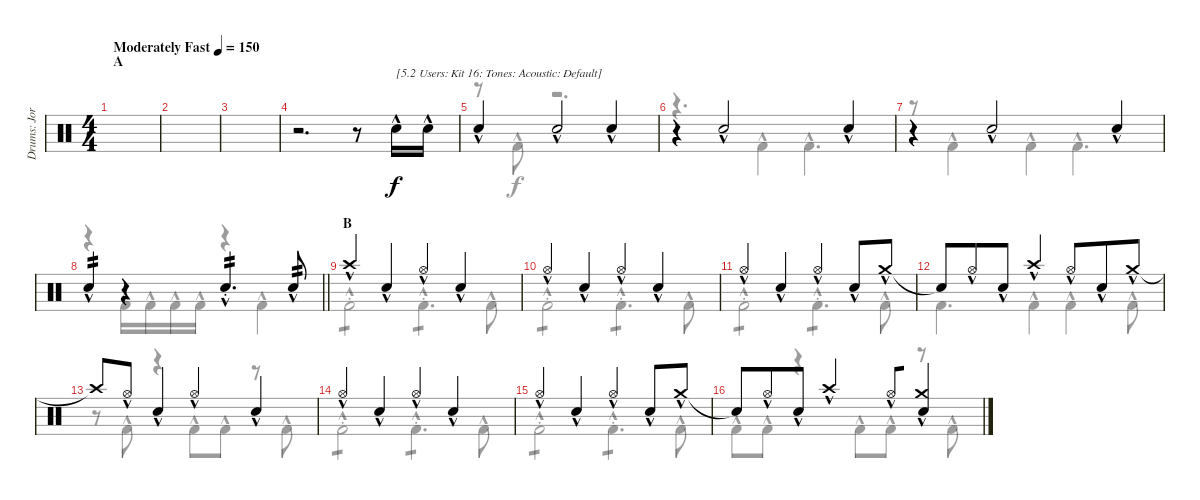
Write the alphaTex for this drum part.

\track ("Drums: Jorg" "Drums: Jor") {instrument percussion}
\staff {score}
\articulation defaults
\voice
\ts (4 4)
\section ("" "A")
\tempo (150 "Moderately Fast")
\clef neutral
\ks c
|
|
|
r.2{d} r.8 "Snare (hit) 2"{hac}.16{txt "[5.2 Users: Kit 16: Tones: Acoustic: Default]"} "Snare (hit) 2"{hac}.16 |
"Snare (hit) 2"{hac}.4 "Snare (hit) 2"{hac}.2 "Snare (hit) 2"{hac}.4 |
r.4 "Snare (hit) 2"{hac}.2 "Snare (hit) 2"{hac}.4 |
r.4 "Snare (hit) 2"{hac}.2 "Snare (hit) 2"{hac}.4 |
\barLineRight lightlight "Snare (hit) 2"{hac}.4{tp 2}
r.4 "Snare (hit) 2"{hac st}.4{d tp 2} "Snare (hit) 2"{hac}.8{tp 2} |
\section ("" "B")
"Crash high (hit)"{hac}.4{beam merge} "Snare (hit) 2"{hac}.4 "Hi-Hat (open)"{hac}.4{beam merge} "Snare (hit) 2"{hac}.4 |
"Hi-Hat (open)"{hac}.4{beam merge} "Snare (hit) 2"{hac}.4 "Hi-Hat (open)"{hac}.4{beam merge} "Snare (hit) 2"{hac}.4 |
"Hi-Hat (open)"{hac}.4{beam merge} "Snare (hit) 2"{hac}.4 "Hi-Hat (open)"{hac}.4{beam merge} "Snare (hit) 2"{hac}.8 "Crash medium (hit)"{hac}.8 |
"Snare (hit)"{t}.8 "Hi-Hat (open)"{hac}.8{beam merge} "Snare (hit) 2"{hac}.8 "Crash high (hit)"{hac}.4 "Hi-Hat (open)"{hac}.8{beam merge} "Snare (hit) 2"{hac}.8 "Crash medium (hit)"{hac}.8 |
"Crash high (hit)"{t}.8 "Hi-Hat (open)"{hac}.8{beam merge} "Snare (hit) 2"{hac}.4 "Hi-Hat (open)"{hac}.4{beam merge} "Snare (hit) 2"{hac}.4 |
"Hi-Hat (open)"{hac}.4{beam merge} "Snare (hit) 2"{hac}.4 "Hi-Hat (open)"{hac}.4{beam merge} "Snare (hit) 2"{hac}.4 |
"Hi-Hat (open)"{hac}.4{beam merge} "Snare (hit) 2"{hac}.4 "Hi-Hat (open)"{hac}.4{beam merge} "Snare (hit) 2"{hac}.8 "Crash medium (hit)"{hac}.8 |
"Snare (hit)"{t}.8 "Hi-Hat (open)"{hac}.8{beam merge} "Snare (hit) 2"{hac}.8 "Crash high (hit)"{hac}.4 "Hi-Hat (open)"{hac}.8{beam merge} ("Crash medium (hit)"{hac} "Snare (hit) 2"{hac}).4
\voice
\clef neutral
\ottava regular
\simile none
\ks c
|
|
|
|
r.8 "Kick (hit) 2"{hac}.8 r.2{d} |
r.4{d} "Kick (hit) 2"{hac}.4 "Kick (hit) 2"{hac}.4{d} |
r.8 "Kick (hit) 2"{hac}.4 "Kick (hit) 2"{hac}.4 "Kick (hit) 2"{hac}.4{d} |
\barLineRight lightlight
r.4 "Kick (hit) 2"{hac}.16 "Kick (hit) 2"{hac}.16 "Kick (hit) 2"{hac}.16 "Kick (hit) 2"{hac}.16 r.4 "Kick (hit) 2"{hac}.4 |
"Kick (hit) 2"{hac st}.2{tp 1} "Kick (hit) 2"{hac st}.4{d tp 1} "Kick (hit) 2"{hac}.8 |
"Kick (hit) 2"{hac st}.2{tp 1} "Kick (hit) 2"{hac st}.4{d tp 1} "Kick (hit) 2"{hac}.8 |
"Kick (hit) 2"{hac st}.2{tp 1} "Kick (hit) 2"{hac st}.4{d tp 1} "Kick (hit) 2"{hac}.8 |
"Kick (hit) 2".4{d} "Kick (hit) 2"{hac}.4 "Kick (hit) 2"{hac}.4 "Kick (hit) 2"{hac}.8 |
r.8 "Kick (hit) 2"{hac}.8 r.4 "Kick (hit) 2"{hac}.8 "Kick (hit) 2"{hac}.8 r.8 "Kick (hit) 2"{hac}.8 |
"Kick (hit) 2"{hac st}.2{tp 1} "Kick (hit) 2"{hac st}.4{d tp 1} "Kick (hit) 2"{hac}.8 |
"Kick (hit) 2"{hac st}.2{tp 1} "Kick (hit) 2"{hac st}.4{d tp 1} "Kick (hit) 2"{hac}.8 |
"Kick (hit) 2"{hac}.8 "Kick (hit) 2"{hac}.8 r.4 "Kick (hit) 2"{hac}.8 "Kick (hit) 2"{hac}.8 r.8 "Kick (hit) 2"{hac}.8
